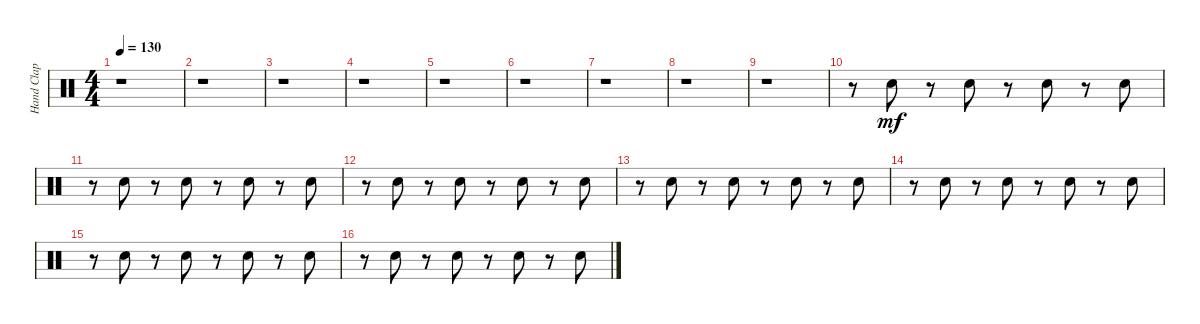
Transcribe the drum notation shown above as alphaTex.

\track ("Hand Clap" "Hand Clap") {instrument percussion}
\staff {score}
\articulation defaults
\ts (4 4)
\tempo 130
\clef neutral
\ks c
r.1{dy mf} |
r.1 |
r.1 |
r.1 |
r.1 |
r.1 |
r.1 |
r.1 |
r.1 |
r.8 "Hand Clap (hit)".8 r.8 "Hand Clap (hit)".8 r.8 "Hand Clap (hit)".8 r.8 "Hand Clap (hit)".8 |
r.8 "Hand Clap (hit)".8 r.8 "Hand Clap (hit)".8 r.8 "Hand Clap (hit)".8 r.8 "Hand Clap (hit)".8 |
r.8 "Hand Clap (hit)".8 r.8 "Hand Clap (hit)".8 r.8 "Hand Clap (hit)".8 r.8 "Hand Clap (hit)".8 |
r.8 "Hand Clap (hit)".8 r.8 "Hand Clap (hit)".8 r.8 "Hand Clap (hit)".8 r.8 "Hand Clap (hit)".8 |
r.8 "Hand Clap (hit)".8 r.8 "Hand Clap (hit)".8 r.8 "Hand Clap (hit)".8 r.8 "Hand Clap (hit)".8 |
r.8 "Hand Clap (hit)".8 r.8 "Hand Clap (hit)".8 r.8 "Hand Clap (hit)".8 r.8 "Hand Clap (hit)".8 |
r.8 "Hand Clap (hit)".8 r.8 "Hand Clap (hit)".8 r.8 "Hand Clap (hit)".8 r.8 "Hand Clap (hit)".8
